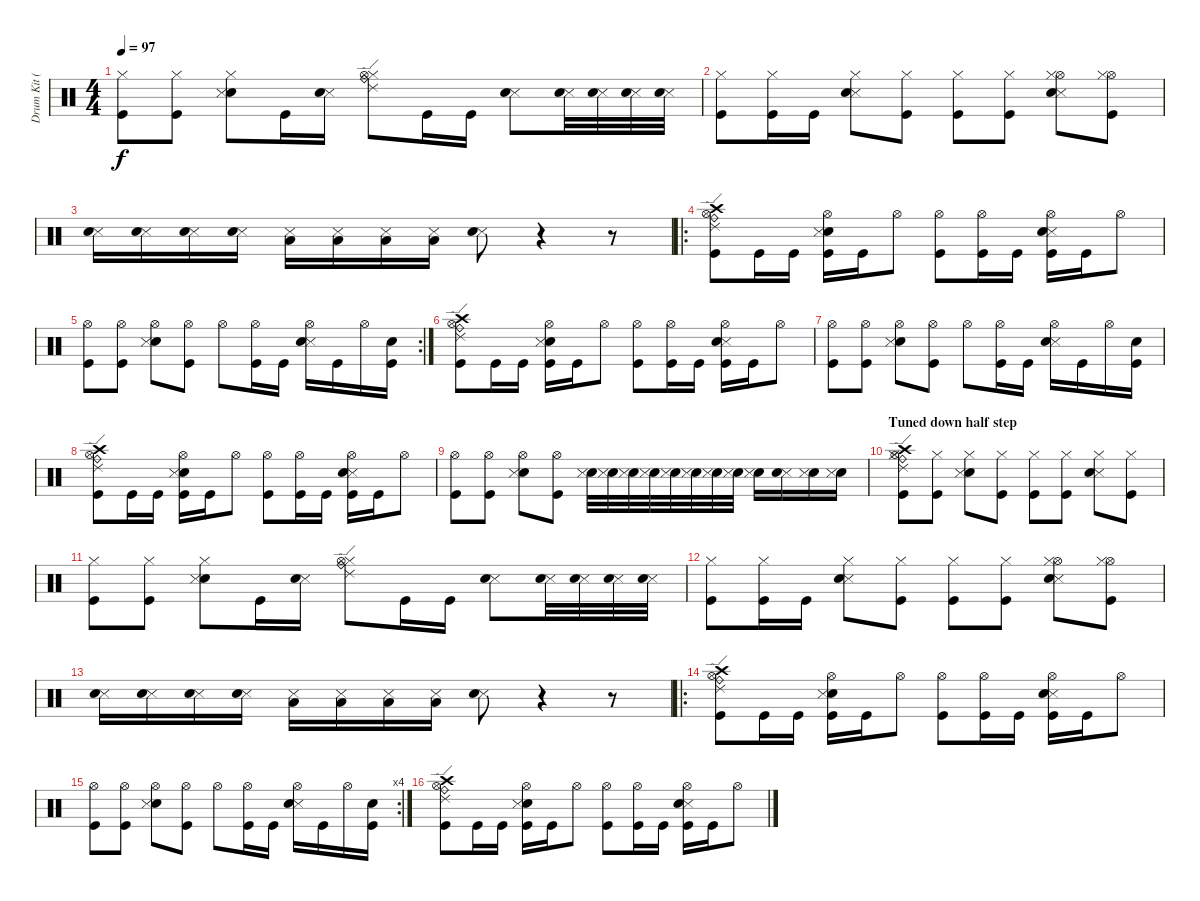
\track ("Drum Kit (Drum Kit 0)" "Drum Kit (") {instrument percussion}
\staff {score}
\articulation defaults
\ts (4 4)
\tempo 97
\clef neutral
\ks c
("Hi-Hat (closed)" "Kick (hit)").8{dy f} ("Hi-Hat (closed)" "Kick (hit)").8 ("Hi-Hat (closed)" "Electric Snare (hit)" "Snare (side stick) 3").8 "Kick (hit)".16 ("Snare (side stick) 3" "Electric Snare (hit)").16 ("Hi-Hat (closed)" "Hi-Hat (open)" "Ride (bell)" "Ride (edge) 2").8 "Kick (hit)".16 "Kick (hit)".16 ("Snare (side stick) 3" "Electric Snare (hit)").8 ("Snare (side stick) 3" "Electric Snare (hit)").32 ("Snare (side stick) 3" "Electric Snare (hit)").32 ("Snare (side stick) 3" "Electric Snare (hit)").32 ("Snare (side stick) 3" "Electric Snare (hit)").32 |
("Kick (hit)" "Hi-Hat (closed)").8 ("Kick (hit)" "Hi-Hat (closed)").16 "Kick (hit)".16 ("Snare (side stick) 3" "Electric Snare (hit)" "Hi-Hat (closed)").8 ("Kick (hit)" "Hi-Hat (closed)").8 ("Kick (hit)" "Hi-Hat (closed)").8 ("Kick (hit)" "Hi-Hat (closed)").8 ("Hi-Hat (open)" "Snare (side stick) 3" "Electric Snare (hit)" "Hi-Hat (closed)").8 ("Kick (hit)" "Hi-Hat (open)" "Hi-Hat (closed)").8 |
("Snare (side stick) 3" "Electric Snare (hit)").16 ("Snare (side stick) 3" "Electric Snare (hit)").16 ("Snare (side stick) 3" "Electric Snare (hit)").16 ("Snare (side stick) 3" "Electric Snare (hit)").16 ("Snare (side stick) 3" "Low Floor Tom (hit)").16 ("Snare (side stick) 3" "Low Floor Tom (hit)").16 ("Snare (side stick) 3" "Low Floor Tom (hit)").16 ("Snare (side stick) 3" "Low Floor Tom (hit)").16 ("Snare (side stick) 3" "Electric Snare (hit)").8 r.4 r.8 |
\ro
("Crash high (hit)" "Ride (edge) 2" "Kick (hit)" "Hi-Hat (open)" "Ride (bell)").8 "Kick (hit)".16 "Kick (hit)".16 ("Electric Snare (hit)" "Snare (side stick) 3" "Kick (hit)" "Hi-Hat (open)").16 "Kick (hit)".16 "Hi-Hat (open)".8 ("Kick (hit)" "Hi-Hat (open)").8 ("Kick (hit)" "Hi-Hat (open)").16 "Kick (hit)".16 ("Snare (side stick) 3" "Electric Snare (hit)" "Kick (hit)" "Hi-Hat (open)").16 "Kick (hit)".16 "Hi-Hat (open)".8 |
\rc 2
("Kick (hit)" "Hi-Hat (open)").8 ("Kick (hit)" "Hi-Hat (open)").8 ("Electric Snare (hit)" "Snare (side stick) 3" "Hi-Hat (open)").8 ("Kick (hit)" "Hi-Hat (open)").8 "Hi-Hat (open)".8 ("Kick (hit)" "Hi-Hat (open)").16 "Kick (hit)".16 ("Snare (side stick) 3" "Electric Snare (hit)" "Hi-Hat (open)").16 "Kick (hit)".16 "Hi-Hat (open)".16 ("Kick (hit)" "Electric Snare (hit)").16 |
("Crash high (hit)" "Ride (edge) 2" "Kick (hit)" "Hi-Hat (open)" "Ride (bell)").8 "Kick (hit)".16 "Kick (hit)".16 ("Electric Snare (hit)" "Snare (side stick) 3" "Kick (hit)" "Hi-Hat (open)").16 "Kick (hit)".16 "Hi-Hat (open)".8 ("Kick (hit)" "Hi-Hat (open)").8 ("Kick (hit)" "Hi-Hat (open)").16 "Kick (hit)".16 ("Snare (side stick) 3" "Electric Snare (hit)" "Kick (hit)" "Hi-Hat (open)").16 "Kick (hit)".16 "Hi-Hat (open)".8 |
("Kick (hit)" "Hi-Hat (open)").8 ("Kick (hit)" "Hi-Hat (open)").8 ("Electric Snare (hit)" "Snare (side stick) 3" "Hi-Hat (open)").8 ("Kick (hit)" "Hi-Hat (open)").8 "Hi-Hat (open)".8 ("Kick (hit)" "Hi-Hat (open)").16 "Kick (hit)".16 ("Snare (side stick) 3" "Electric Snare (hit)" "Hi-Hat (open)").16 "Kick (hit)".16 "Hi-Hat (open)".16 ("Kick (hit)" "Electric Snare (hit)").16 |
("Crash high (hit)" "Ride (edge) 2" "Kick (hit)" "Hi-Hat (open)" "Ride (bell)").8 "Kick (hit)".16 "Kick (hit)".16 ("Electric Snare (hit)" "Snare (side stick) 3" "Kick (hit)" "Hi-Hat (open)").16 "Kick (hit)".16 "Hi-Hat (open)".8 ("Kick (hit)" "Hi-Hat (open)").8 ("Kick (hit)" "Hi-Hat (open)").16 "Kick (hit)".16 ("Snare (side stick) 3" "Electric Snare (hit)" "Kick (hit)" "Hi-Hat (open)").16 "Kick (hit)".16 "Hi-Hat (open)".8 |
("Kick (hit)" "Hi-Hat (open)").8 ("Kick (hit)" "Hi-Hat (open)").8 ("Electric Snare (hit)" "Snare (side stick) 3" "Hi-Hat (open)").8 ("Kick (hit)" "Hi-Hat (open)").8 ("Electric Snare (hit)" "Snare (side stick) 3").32 ("Electric Snare (hit)" "Snare (side stick) 3").32 ("Electric Snare (hit)" "Snare (side stick) 3").32 ("Electric Snare (hit)" "Snare (side stick) 3").32 ("Electric Snare (hit)" "Snare (side stick) 3").32 ("Electric Snare (hit)" "Snare (side stick) 3").32 ("Electric Snare (hit)" "Snare (side stick) 3").32 ("Electric Snare (hit)" "Snare (side stick) 3").32 ("Electric Snare (hit)" "Snare (side stick) 3").16 ("Snare (side stick) 3" "Electric Snare (hit)").16 ("Electric Snare (hit)" "Snare (side stick) 3").16 ("Electric Snare (hit)" "Snare (side stick) 3").16 |
\section ("" "Tuned down half step")
("Kick (hit)" "Hi-Hat (closed)" "Hi-Hat (open)" "Crash high (hit)" "Ride (bell)" "Ride (edge) 2").8 ("Hi-Hat (closed)" "Kick (hit)").8 ("Hi-Hat (closed)" "Electric Snare (hit)" "Snare (side stick) 3").8 ("Hi-Hat (closed)" "Kick (hit)").8 ("Hi-Hat (closed)" "Kick (hit)").8 ("Kick (hit)" "Hi-Hat (closed)").8 ("Hi-Hat (closed)" "Snare (side stick) 3" "Electric Snare (hit)").8 ("Hi-Hat (closed)" "Kick (hit)").8 |
("Hi-Hat (closed)" "Kick (hit)").8 ("Hi-Hat (closed)" "Kick (hit)").8 ("Hi-Hat (closed)" "Electric Snare (hit)" "Snare (side stick) 3").8 "Kick (hit)".16 ("Snare (side stick) 3" "Electric Snare (hit)").16 ("Hi-Hat (closed)" "Hi-Hat (open)" "Ride (bell)" "Ride (edge) 2").8 "Kick (hit)".16 "Kick (hit)".16 ("Snare (side stick) 3" "Electric Snare (hit)").8 ("Snare (side stick) 3" "Electric Snare (hit)").32 ("Snare (side stick) 3" "Electric Snare (hit)").32 ("Snare (side stick) 3" "Electric Snare (hit)").32 ("Snare (side stick) 3" "Electric Snare (hit)").32 |
("Kick (hit)" "Hi-Hat (closed)").8 ("Kick (hit)" "Hi-Hat (closed)").16 "Kick (hit)".16 ("Snare (side stick) 3" "Electric Snare (hit)" "Hi-Hat (closed)").8 ("Kick (hit)" "Hi-Hat (closed)").8 ("Kick (hit)" "Hi-Hat (closed)").8 ("Kick (hit)" "Hi-Hat (closed)").8 ("Hi-Hat (open)" "Snare (side stick) 3" "Electric Snare (hit)" "Hi-Hat (closed)").8 ("Kick (hit)" "Hi-Hat (open)" "Hi-Hat (closed)").8 |
("Snare (side stick) 3" "Electric Snare (hit)").16 ("Snare (side stick) 3" "Electric Snare (hit)").16 ("Snare (side stick) 3" "Electric Snare (hit)").16 ("Snare (side stick) 3" "Electric Snare (hit)").16 ("Snare (side stick) 3" "Low Floor Tom (hit)").16 ("Snare (side stick) 3" "Low Floor Tom (hit)").16 ("Snare (side stick) 3" "Low Floor Tom (hit)").16 ("Snare (side stick) 3" "Low Floor Tom (hit)").16 ("Snare (side stick) 3" "Electric Snare (hit)").8 r.4 r.8 |
\ro
("Crash high (hit)" "Ride (edge) 2" "Kick (hit)" "Hi-Hat (open)" "Ride (bell)").8 "Kick (hit)".16 "Kick (hit)".16 ("Electric Snare (hit)" "Snare (side stick) 3" "Kick (hit)" "Hi-Hat (open)").16 "Kick (hit)".16 "Hi-Hat (open)".8 ("Kick (hit)" "Hi-Hat (open)").8 ("Kick (hit)" "Hi-Hat (open)").16 "Kick (hit)".16 ("Snare (side stick) 3" "Electric Snare (hit)" "Kick (hit)" "Hi-Hat (open)").16 "Kick (hit)".16 "Hi-Hat (open)".8 |
\rc 4
("Kick (hit)" "Hi-Hat (open)").8 ("Kick (hit)" "Hi-Hat (open)").8 ("Electric Snare (hit)" "Snare (side stick) 3" "Hi-Hat (open)").8 ("Kick (hit)" "Hi-Hat (open)").8 "Hi-Hat (open)".8 ("Kick (hit)" "Hi-Hat (open)").16 "Kick (hit)".16 ("Snare (side stick) 3" "Electric Snare (hit)" "Hi-Hat (open)").16 "Kick (hit)".16 "Hi-Hat (open)".16 ("Kick (hit)" "Electric Snare (hit)").16 |
("Crash high (hit)" "Ride (edge) 2" "Kick (hit)" "Hi-Hat (open)" "Ride (bell)").8 "Kick (hit)".16 "Kick (hit)".16 ("Electric Snare (hit)" "Snare (side stick) 3" "Kick (hit)" "Hi-Hat (open)").16 "Kick (hit)".16 "Hi-Hat (open)".8 ("Kick (hit)" "Hi-Hat (open)").8 ("Kick (hit)" "Hi-Hat (open)").16 "Kick (hit)".16 ("Snare (side stick) 3" "Electric Snare (hit)" "Kick (hit)" "Hi-Hat (open)").16 "Kick (hit)".16 "Hi-Hat (open)".8
